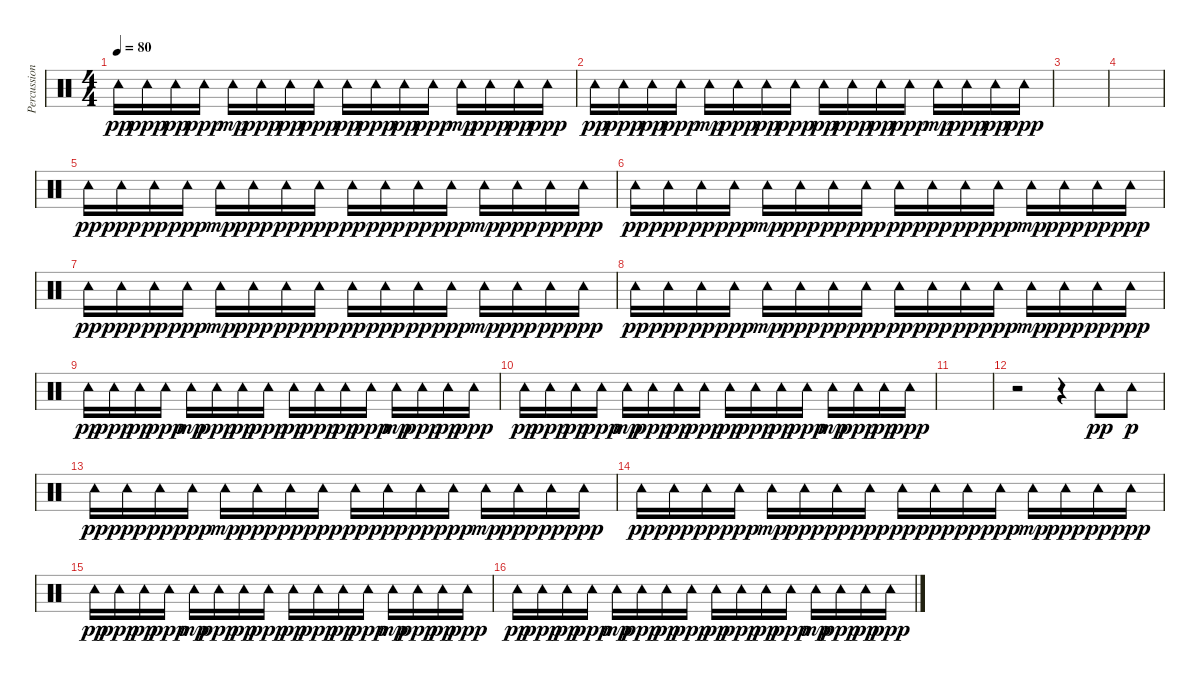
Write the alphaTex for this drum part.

\track ("Percussion" "Percussion") {instrument percussion}
\staff {score}
\articulation defaults
\ts (4 4)
\tempo 80
\clef neutral
\ks c "Tambourine (hit)".16{dy pp} "Tambourine (hit)".16{dy ppp} "Tambourine (hit)".16{dy pp} "Tambourine (hit)".16{dy ppp} "Tambourine (hit)".16{dy mp} "Tambourine (hit)".16{dy ppp} "Tambourine (hit)".16{dy pp} "Tambourine (hit)".16{dy ppp} "Tambourine (hit)".16{dy pp} "Tambourine (hit)".16{dy ppp} "Tambourine (hit)".16{dy pp} "Tambourine (hit)".16{dy ppp} "Tambourine (hit)".16{dy mp} "Tambourine (hit)".16{dy ppp} "Tambourine (hit)".16{dy pp} "Tambourine (hit)".16{dy ppp}
|
"Tambourine (hit)".16{dy pp} "Tambourine (hit)".16{dy ppp} "Tambourine (hit)".16{dy pp} "Tambourine (hit)".16{dy ppp} "Tambourine (hit)".16{dy mp} "Tambourine (hit)".16{dy ppp} "Tambourine (hit)".16{dy pp} "Tambourine (hit)".16{dy ppp} "Tambourine (hit)".16{dy pp} "Tambourine (hit)".16{dy ppp} "Tambourine (hit)".16{dy pp} "Tambourine (hit)".16{dy ppp} "Tambourine (hit)".16{dy mp} "Tambourine (hit)".16{dy ppp} "Tambourine (hit)".16{dy pp} "Tambourine (hit)".16{dy ppp} |
|
|
"Tambourine (hit)".16{dy pp} "Tambourine (hit)".16{dy ppp} "Tambourine (hit)".16{dy pp} "Tambourine (hit)".16{dy ppp} "Tambourine (hit)".16{dy mp} "Tambourine (hit)".16{dy ppp} "Tambourine (hit)".16{dy pp} "Tambourine (hit)".16{dy ppp} "Tambourine (hit)".16{dy pp} "Tambourine (hit)".16{dy ppp} "Tambourine (hit)".16{dy pp} "Tambourine (hit)".16{dy ppp} "Tambourine (hit)".16{dy mp} "Tambourine (hit)".16{dy ppp} "Tambourine (hit)".16{dy pp} "Tambourine (hit)".16{dy ppp} |
"Tambourine (hit)".16{dy pp} "Tambourine (hit)".16{dy ppp} "Tambourine (hit)".16{dy pp} "Tambourine (hit)".16{dy ppp} "Tambourine (hit)".16{dy mp} "Tambourine (hit)".16{dy ppp} "Tambourine (hit)".16{dy pp} "Tambourine (hit)".16{dy ppp} "Tambourine (hit)".16{dy pp} "Tambourine (hit)".16{dy ppp} "Tambourine (hit)".16{dy pp} "Tambourine (hit)".16{dy ppp} "Tambourine (hit)".16{dy mp} "Tambourine (hit)".16{dy ppp} "Tambourine (hit)".16{dy pp} "Tambourine (hit)".16{dy ppp} |
"Tambourine (hit)".16{dy pp} "Tambourine (hit)".16{dy ppp} "Tambourine (hit)".16{dy pp} "Tambourine (hit)".16{dy ppp} "Tambourine (hit)".16{dy mp} "Tambourine (hit)".16{dy ppp} "Tambourine (hit)".16{dy pp} "Tambourine (hit)".16{dy ppp} "Tambourine (hit)".16{dy pp} "Tambourine (hit)".16{dy ppp} "Tambourine (hit)".16{dy pp} "Tambourine (hit)".16{dy ppp} "Tambourine (hit)".16{dy mp} "Tambourine (hit)".16{dy ppp} "Tambourine (hit)".16{dy pp} "Tambourine (hit)".16{dy ppp} |
"Tambourine (hit)".16{dy pp} "Tambourine (hit)".16{dy ppp} "Tambourine (hit)".16{dy pp} "Tambourine (hit)".16{dy ppp} "Tambourine (hit)".16{dy mp} "Tambourine (hit)".16{dy ppp} "Tambourine (hit)".16{dy pp} "Tambourine (hit)".16{dy ppp} "Tambourine (hit)".16{dy pp} "Tambourine (hit)".16{dy ppp} "Tambourine (hit)".16{dy pp} "Tambourine (hit)".16{dy ppp} "Tambourine (hit)".16{dy mp} "Tambourine (hit)".16{dy ppp} "Tambourine (hit)".16{dy pp} "Tambourine (hit)".16{dy ppp} |
"Tambourine (hit)".16{dy pp} "Tambourine (hit)".16{dy ppp} "Tambourine (hit)".16{dy pp} "Tambourine (hit)".16{dy ppp} "Tambourine (hit)".16{dy mp} "Tambourine (hit)".16{dy ppp} "Tambourine (hit)".16{dy pp} "Tambourine (hit)".16{dy ppp} "Tambourine (hit)".16{dy pp} "Tambourine (hit)".16{dy ppp} "Tambourine (hit)".16{dy pp} "Tambourine (hit)".16{dy ppp} "Tambourine (hit)".16{dy mp} "Tambourine (hit)".16{dy ppp} "Tambourine (hit)".16{dy pp} "Tambourine (hit)".16{dy ppp} |
"Tambourine (hit)".16{dy pp} "Tambourine (hit)".16{dy ppp} "Tambourine (hit)".16{dy pp} "Tambourine (hit)".16{dy ppp} "Tambourine (hit)".16{dy mp} "Tambourine (hit)".16{dy ppp} "Tambourine (hit)".16{dy pp} "Tambourine (hit)".16{dy ppp} "Tambourine (hit)".16{dy pp} "Tambourine (hit)".16{dy ppp} "Tambourine (hit)".16{dy pp} "Tambourine (hit)".16{dy ppp} "Tambourine (hit)".16{dy mp} "Tambourine (hit)".16{dy ppp} "Tambourine (hit)".16{dy pp} "Tambourine (hit)".16{dy ppp} |
|
r.2 r.4 "Tambourine (hit)".8{dy pp} "Tambourine (hit)".8{dy p} |
"Tambourine (hit)".16{dy pp} "Tambourine (hit)".16{dy ppp} "Tambourine (hit)".16{dy pp} "Tambourine (hit)".16{dy ppp} "Tambourine (hit)".16{dy mp} "Tambourine (hit)".16{dy ppp} "Tambourine (hit)".16{dy pp} "Tambourine (hit)".16{dy ppp} "Tambourine (hit)".16{dy pp} "Tambourine (hit)".16{dy ppp} "Tambourine (hit)".16{dy pp} "Tambourine (hit)".16{dy ppp} "Tambourine (hit)".16{dy mp} "Tambourine (hit)".16{dy ppp} "Tambourine (hit)".16{dy pp} "Tambourine (hit)".16{dy ppp} |
"Tambourine (hit)".16{dy pp} "Tambourine (hit)".16{dy ppp} "Tambourine (hit)".16{dy pp} "Tambourine (hit)".16{dy ppp} "Tambourine (hit)".16{dy mp} "Tambourine (hit)".16{dy ppp} "Tambourine (hit)".16{dy pp} "Tambourine (hit)".16{dy ppp} "Tambourine (hit)".16{dy pp} "Tambourine (hit)".16{dy ppp} "Tambourine (hit)".16{dy pp} "Tambourine (hit)".16{dy ppp} "Tambourine (hit)".16{dy mp} "Tambourine (hit)".16{dy ppp} "Tambourine (hit)".16{dy pp} "Tambourine (hit)".16{dy ppp} |
"Tambourine (hit)".16{dy pp} "Tambourine (hit)".16{dy ppp} "Tambourine (hit)".16{dy pp} "Tambourine (hit)".16{dy ppp} "Tambourine (hit)".16{dy mp} "Tambourine (hit)".16{dy ppp} "Tambourine (hit)".16{dy pp} "Tambourine (hit)".16{dy ppp} "Tambourine (hit)".16{dy pp} "Tambourine (hit)".16{dy ppp} "Tambourine (hit)".16{dy pp} "Tambourine (hit)".16{dy ppp} "Tambourine (hit)".16{dy mp} "Tambourine (hit)".16{dy ppp} "Tambourine (hit)".16{dy pp} "Tambourine (hit)".16{dy ppp} |
"Tambourine (hit)".16{dy pp} "Tambourine (hit)".16{dy ppp} "Tambourine (hit)".16{dy pp} "Tambourine (hit)".16{dy ppp} "Tambourine (hit)".16{dy mp} "Tambourine (hit)".16{dy ppp} "Tambourine (hit)".16{dy pp} "Tambourine (hit)".16{dy ppp} "Tambourine (hit)".16{dy pp} "Tambourine (hit)".16{dy ppp} "Tambourine (hit)".16{dy pp} "Tambourine (hit)".16{dy ppp} "Tambourine (hit)".16{dy mp} "Tambourine (hit)".16{dy ppp} "Tambourine (hit)".16{dy pp} "Tambourine (hit)".16{dy ppp}
